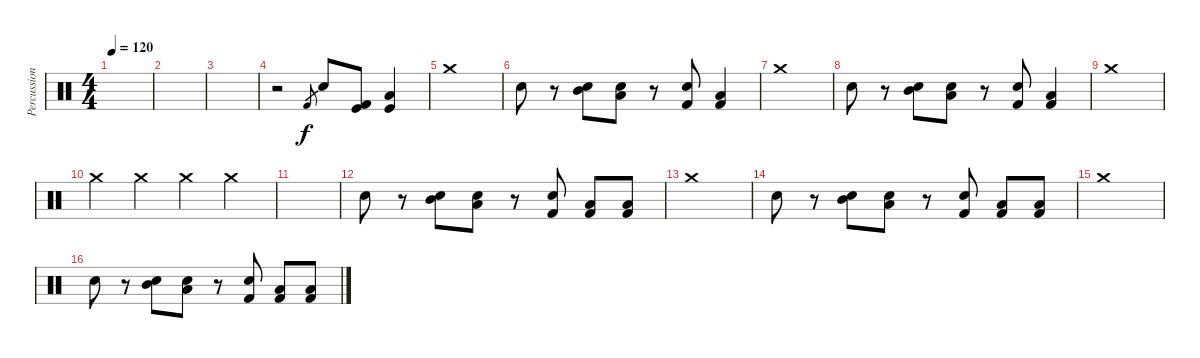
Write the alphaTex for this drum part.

\track ("Percussion" "Percussion") {instrument percussion}
\staff {score}
\articulation defaults
\ts (4 4)
\tempo 120
\clef neutral
\ks c
|
|
|
r.2 "Kick (hit) 2".8{gr} "Snare (hit) 2".8 ("Kick (hit) 2" "Kick (hit)").8 ("Kick (hit)" "Low Floor Tom (hit)").4 |
"Crash medium (hit)".1 |
"Electric Snare (hit)".8 r.8 ("Electric Snare (hit)" "Mid Tom (hit)").8 ("Snare (hit) 2" "Low Tom (hit)").8 r.8 ("Snare (hit) 2" "Kick (hit) 2").8 ("Low Tom (hit)" "Kick (hit) 2").4 |
"Crash medium (hit)".1 |
"Electric Snare (hit)".8 r.8 ("Electric Snare (hit)" "Mid Tom (hit)").8 ("Snare (hit) 2" "Low Tom (hit)").8 r.8 ("Snare (hit) 2" "Kick (hit) 2").8 ("Low Tom (hit)" "Kick (hit) 2").4 |
"Crash medium (hit)".1 |
"Crash medium (hit)".4{volume 0} "Crash medium (hit)".4{volume 16} "Crash medium (hit)".4 "Crash medium (hit)".4 |
|
"Electric Snare (hit)".8{volume 11} r.8 ("Electric Snare (hit)" "Mid Tom (hit)").8 ("Snare (hit) 2" "Low Tom (hit)").8 r.8 ("Snare (hit) 2" "Kick (hit) 2").8 ("Low Tom (hit)" "Kick (hit) 2").8 ("Low Tom (hit)" "Kick (hit) 2").8 |
"Crash medium (hit)".1 |
"Electric Snare (hit)".8 r.8 ("Electric Snare (hit)" "Mid Tom (hit)").8 ("Snare (hit) 2" "Low Tom (hit)").8 r.8 ("Snare (hit) 2" "Kick (hit) 2").8 ("Low Tom (hit)" "Kick (hit) 2").8 ("Low Tom (hit)" "Kick (hit) 2").8 |
"Crash medium (hit)".1 |
"Electric Snare (hit)".8 r.8 ("Electric Snare (hit)" "Mid Tom (hit)").8 ("Snare (hit) 2" "Low Tom (hit)").8 r.8 ("Snare (hit) 2" "Kick (hit) 2").8 ("Low Tom (hit)" "Kick (hit) 2").8 ("Low Tom (hit)" "Kick (hit) 2").8
